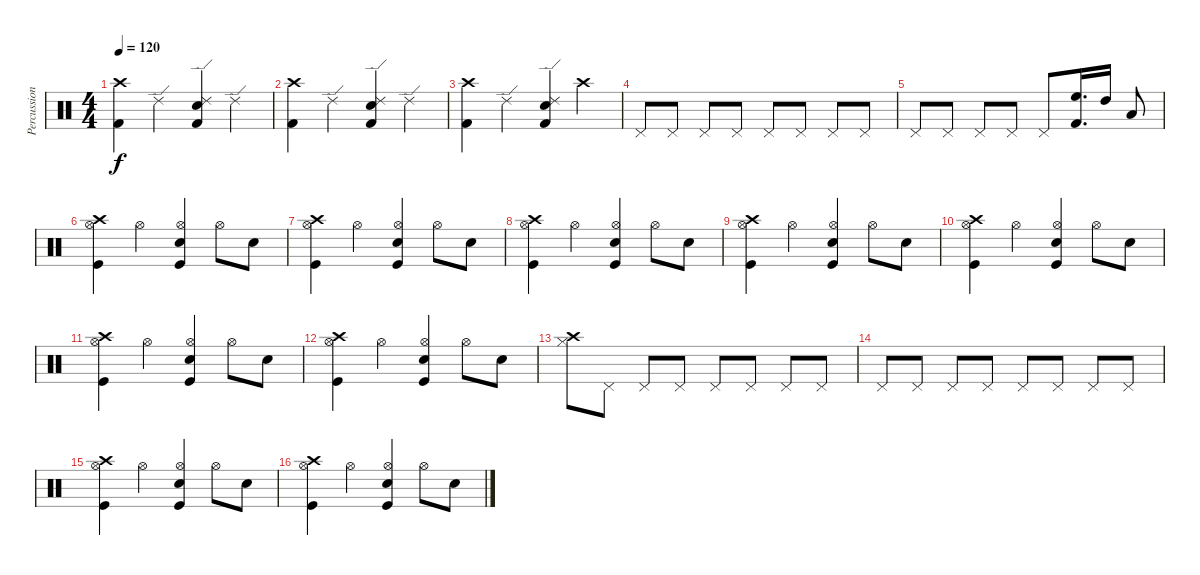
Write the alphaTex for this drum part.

\track ("Percussion" "Percussion") {instrument percussion}
\staff {score}
\articulation defaults
\ts (4 4)
\tempo 120
\clef neutral
\ks c
("Kick (hit) 2" "Crash high (hit)").4{dy f} "Ride (edge) 2".4 ("Ride (edge) 2" "Electric Snare (hit)" "Kick (hit) 2").4 "Ride (edge) 2".4 |
("Kick (hit) 2" "Crash high (hit)").4 "Ride (edge) 2".4 ("Ride (edge) 2" "Electric Snare (hit)" "Kick (hit) 2").4 "Ride (edge) 2".4 |
("Kick (hit) 2" "Crash high (hit)").4 "Ride (edge) 2".4 ("Ride (edge) 2" "Electric Snare (hit)" "Kick (hit) 2").4 "Crash high (hit)".4 |
"Pedal Hi-Hat (hit)".8 "Pedal Hi-Hat (hit)".8 "Pedal Hi-Hat (hit)".8 "Pedal Hi-Hat (hit)".8 "Pedal Hi-Hat (hit)".8 "Pedal Hi-Hat (hit)".8 "Pedal Hi-Hat (hit)".8 "Pedal Hi-Hat (hit)".8 |
"Pedal Hi-Hat (hit)".8 "Pedal Hi-Hat (hit)".8 "Pedal Hi-Hat (hit)".8 "Pedal Hi-Hat (hit)".8 "Pedal Hi-Hat (hit)".8 ("High Floor Tom (hit)" "Kick (hit) 2").16{d} "High Tom (hit)".16 "Low Tom (hit)".8 |
("Crash high (hit)" "Hi-Hat (open)" "Kick (hit)").4 "Hi-Hat (open)".4 ("Hi-Hat (open)" "Electric Snare (hit)" "Kick (hit)").4 "Hi-Hat (open)".8 "Electric Snare (hit)".8 |
("Crash high (hit)" "Hi-Hat (open)" "Kick (hit)").4 "Hi-Hat (open)".4 ("Hi-Hat (open)" "Electric Snare (hit)" "Kick (hit)").4 "Hi-Hat (open)".8 "Electric Snare (hit)".8 |
("Crash high (hit)" "Hi-Hat (open)" "Kick (hit)").4 "Hi-Hat (open)".4 ("Hi-Hat (open)" "Electric Snare (hit)" "Kick (hit)").4 "Hi-Hat (open)".8 "Electric Snare (hit)".8 |
("Crash high (hit)" "Hi-Hat (open)" "Kick (hit)").4 "Hi-Hat (open)".4 ("Hi-Hat (open)" "Electric Snare (hit)" "Kick (hit)").4 "Hi-Hat (open)".8 "Electric Snare (hit)".8 |
("Crash high (hit)" "Hi-Hat (open)" "Kick (hit)").4 "Hi-Hat (open)".4 ("Hi-Hat (open)" "Electric Snare (hit)" "Kick (hit)").4 "Hi-Hat (open)".8 "Electric Snare (hit)".8 |
("Crash high (hit)" "Hi-Hat (open)" "Kick (hit)").4 "Hi-Hat (open)".4 ("Hi-Hat (open)" "Electric Snare (hit)" "Kick (hit)").4 "Hi-Hat (open)".8 "Electric Snare (hit)".8 |
("Crash high (hit)" "Hi-Hat (open)" "Kick (hit)").4 "Hi-Hat (open)".4 ("Hi-Hat (open)" "Electric Snare (hit)" "Kick (hit)").4 "Hi-Hat (open)".8 "Electric Snare (hit)".8 |
("Crash high (hit)" "Hi-Hat (closed)").8 "Pedal Hi-Hat (hit)".8 "Pedal Hi-Hat (hit)".8 "Pedal Hi-Hat (hit)".8 "Pedal Hi-Hat (hit)".8 "Pedal Hi-Hat (hit)".8 "Pedal Hi-Hat (hit)".8 "Pedal Hi-Hat (hit)".8 |
"Pedal Hi-Hat (hit)".8 "Pedal Hi-Hat (hit)".8 "Pedal Hi-Hat (hit)".8 "Pedal Hi-Hat (hit)".8 "Pedal Hi-Hat (hit)".8 "Pedal Hi-Hat (hit)".8 "Pedal Hi-Hat (hit)".8 "Pedal Hi-Hat (hit)".8 |
("Crash high (hit)" "Hi-Hat (open)" "Kick (hit)").4 "Hi-Hat (open)".4 ("Hi-Hat (open)" "Electric Snare (hit)" "Kick (hit)").4 "Hi-Hat (open)".8 "Electric Snare (hit)".8 |
("Crash high (hit)" "Hi-Hat (open)" "Kick (hit)").4 "Hi-Hat (open)".4 ("Hi-Hat (open)" "Electric Snare (hit)" "Kick (hit)").4 "Hi-Hat (open)".8 "Electric Snare (hit)".8
